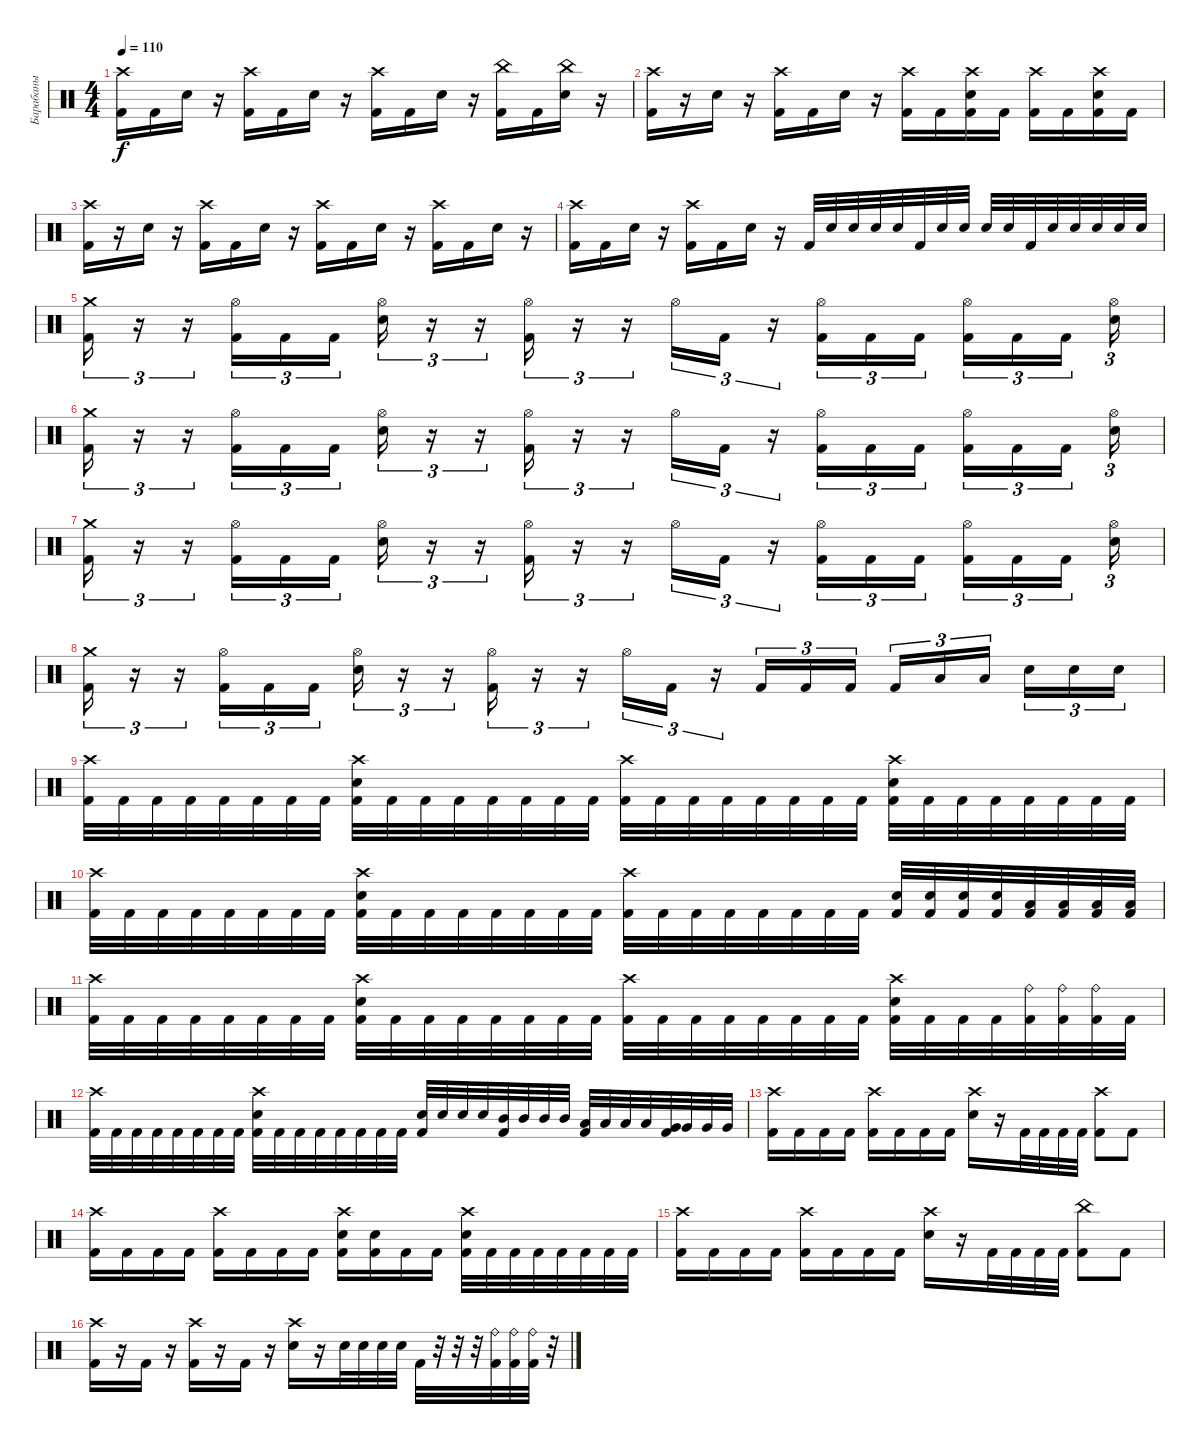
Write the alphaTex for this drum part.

\track ("Барабаны" "Барабаны") {instrument percussion}
\staff {score}
\articulation defaults
\ts (4 4)
\tempo 110
\clef neutral
\ks c
("Crash high (hit)" "Kick (hit) 2").16{dy f} "Kick (hit) 2".16 "Electric Snare (hit)".16 r.16 ("Crash high (hit)" "Kick (hit) 2").16 "Kick (hit) 2".16 "Electric Snare (hit)".16 r.16 ("Crash high (hit)" "Kick (hit) 2").16 "Kick (hit) 2".16 "Electric Snare (hit)".16 r.16 ("China (hit)" "Kick (hit) 2").16 "Kick (hit) 2".16 ("China (hit)" "Electric Snare (hit)").16 r.16 |
("Crash high (hit)" "Kick (hit) 2").16 r.16 "Electric Snare (hit)".16 r.16 ("Crash high (hit)" "Kick (hit) 2").16 "Kick (hit) 2".16 "Electric Snare (hit)".16 r.16 ("Crash high (hit)" "Kick (hit) 2").16 "Kick (hit) 2".16 ("Crash high (hit)" "Electric Snare (hit)" "Kick (hit) 2").16 "Kick (hit) 2".16 ("Crash high (hit)" "Kick (hit) 2").16 "Kick (hit) 2".16 ("Crash high (hit)" "Electric Snare (hit)" "Kick (hit) 2").16 "Kick (hit) 2".16 |
("Crash high (hit)" "Kick (hit) 2").16 r.16 "Electric Snare (hit)".16 r.16 ("Crash high (hit)" "Kick (hit) 2").16 "Kick (hit) 2".16 "Electric Snare (hit)".16 r.16 ("Crash high (hit)" "Kick (hit) 2").16 "Kick (hit) 2".16 "Electric Snare (hit)".16 r.16 ("Crash high (hit)" "Kick (hit) 2").16 "Kick (hit) 2".16 "Electric Snare (hit)".16 r.16 |
("Crash high (hit)" "Kick (hit) 2").16 "Kick (hit) 2".16 "Electric Snare (hit)".16 r.16 ("Crash high (hit)" "Kick (hit) 2").16 "Kick (hit) 2".16 "Electric Snare (hit)".16 r.16 "Kick (hit) 2".32 "Electric Snare (hit)".32 "Electric Snare (hit)".32 "Electric Snare (hit)".32 "Electric Snare (hit)".32 "Kick (hit) 2".32 "Electric Snare (hit)".32 "Electric Snare (hit)".32 "Electric Snare (hit)".32 "Electric Snare (hit)".32 "Kick (hit) 2".32 "Electric Snare (hit)".32 "Electric Snare (hit)".32 "Electric Snare (hit)".32 "Electric Snare (hit)".32 "Electric Snare (hit)".32 |
("Crash medium (hit)" "Kick (hit) 2").16{tu (3 2)} r.16{tu (3 2)} r.16{tu (3 2)} ("Hi-Hat (open)" "Kick (hit) 2").16{tu (3 2)} "Kick (hit) 2".16{tu (3 2)} "Kick (hit) 2".16{tu (3 2)} ("Hi-Hat (open)" "Electric Snare (hit)").16{tu (3 2)} r.16{tu (3 2)} r.16{tu (3 2)} ("Hi-Hat (open)" "Kick (hit) 2").16{tu (3 2)} r.16{tu (3 2)} r.16{tu (3 2)} "Hi-Hat (open)".16{tu (3 2)} "Kick (hit) 2".16{tu (3 2)} r.16{tu (3 2)} ("Hi-Hat (open)" "Kick (hit) 2").16{tu (3 2)} "Kick (hit) 2".16{tu (3 2)} "Kick (hit) 2".16{tu (3 2)} ("Hi-Hat (open)" "Kick (hit) 2").16{tu (3 2)} "Kick (hit) 2".16{tu (3 2)} "Kick (hit) 2".16{tu (3 2) beam splitsecondary} ("Hi-Hat (open)" "Electric Snare (hit)").16{tu (3 2)} |
("Crash medium (hit)" "Kick (hit) 2").16{tu (3 2)} r.16{tu (3 2)} r.16{tu (3 2)} ("Hi-Hat (open)" "Kick (hit) 2").16{tu (3 2)} "Kick (hit) 2".16{tu (3 2)} "Kick (hit) 2".16{tu (3 2)} ("Hi-Hat (open)" "Electric Snare (hit)").16{tu (3 2)} r.16{tu (3 2)} r.16{tu (3 2)} ("Hi-Hat (open)" "Kick (hit) 2").16{tu (3 2)} r.16{tu (3 2)} r.16{tu (3 2)} "Hi-Hat (open)".16{tu (3 2)} "Kick (hit) 2".16{tu (3 2)} r.16{tu (3 2)} ("Hi-Hat (open)" "Kick (hit) 2").16{tu (3 2)} "Kick (hit) 2".16{tu (3 2)} "Kick (hit) 2".16{tu (3 2)} ("Hi-Hat (open)" "Kick (hit) 2").16{tu (3 2)} "Kick (hit) 2".16{tu (3 2)} "Kick (hit) 2".16{tu (3 2) beam splitsecondary} ("Hi-Hat (open)" "Electric Snare (hit)").16{tu (3 2)} |
("Crash medium (hit)" "Kick (hit) 2").16{tu (3 2)} r.16{tu (3 2)} r.16{tu (3 2)} ("Hi-Hat (open)" "Kick (hit) 2").16{tu (3 2)} "Kick (hit) 2".16{tu (3 2)} "Kick (hit) 2".16{tu (3 2)} ("Hi-Hat (open)" "Electric Snare (hit)").16{tu (3 2)} r.16{tu (3 2)} r.16{tu (3 2)} ("Hi-Hat (open)" "Kick (hit) 2").16{tu (3 2)} r.16{tu (3 2)} r.16{tu (3 2)} "Hi-Hat (open)".16{tu (3 2)} "Kick (hit) 2".16{tu (3 2)} r.16{tu (3 2)} ("Hi-Hat (open)" "Kick (hit) 2").16{tu (3 2)} "Kick (hit) 2".16{tu (3 2)} "Kick (hit) 2".16{tu (3 2)} ("Hi-Hat (open)" "Kick (hit) 2").16{tu (3 2)} "Kick (hit) 2".16{tu (3 2)} "Kick (hit) 2".16{tu (3 2) beam splitsecondary} ("Hi-Hat (open)" "Electric Snare (hit)").16{tu (3 2)} |
("Crash medium (hit)" "Kick (hit) 2").16{tu (3 2)} r.16{tu (3 2)} r.16{tu (3 2)} ("Hi-Hat (open)" "Kick (hit) 2").16{tu (3 2)} "Kick (hit) 2".16{tu (3 2)} "Kick (hit) 2".16{tu (3 2)} ("Hi-Hat (open)" "Electric Snare (hit)").16{tu (3 2)} r.16{tu (3 2)} r.16{tu (3 2)} ("Hi-Hat (open)" "Kick (hit) 2").16{tu (3 2)} r.16{tu (3 2)} r.16{tu (3 2)} "Hi-Hat (open)".16{tu (3 2)} "Kick (hit) 2".16{tu (3 2)} r.16{tu (3 2)} "Kick (hit) 2".16{tu (3 2)} "Kick (hit) 2".16{tu (3 2)} "Kick (hit) 2".16{tu (3 2)} "Kick (hit) 2".16{tu (3 2)} "Low Tom (hit)".16{tu (3 2)} "Low Tom (hit)".16{tu (3 2) beam splitsecondary} "Electric Snare (hit)".16{tu (3 2)} "Electric Snare (hit)".16{tu (3 2)} "Electric Snare (hit)".16{tu (3 2)} |
("Crash high (hit)" "Kick (hit) 2").32 "Kick (hit) 2".32 "Kick (hit) 2".32 "Kick (hit) 2".32 "Kick (hit) 2".32 "Kick (hit) 2".32 "Kick (hit) 2".32 "Kick (hit) 2".32 ("Crash high (hit)" "Electric Snare (hit)" "Kick (hit) 2").32 "Kick (hit) 2".32 "Kick (hit) 2".32 "Kick (hit) 2".32 "Kick (hit) 2".32 "Kick (hit) 2".32 "Kick (hit) 2".32 "Kick (hit) 2".32 ("Crash high (hit)" "Kick (hit) 2").32 "Kick (hit) 2".32 "Kick (hit) 2".32 "Kick (hit) 2".32 "Kick (hit) 2".32 "Kick (hit) 2".32 "Kick (hit) 2".32 "Kick (hit) 2".32 ("Crash high (hit)" "Electric Snare (hit)" "Kick (hit) 2").32 "Kick (hit) 2".32 "Kick (hit) 2".32 "Kick (hit) 2".32 "Kick (hit) 2".32 "Kick (hit) 2".32 "Kick (hit) 2".32 "Kick (hit) 2".32 |
("Crash high (hit)" "Kick (hit) 2").32 "Kick (hit) 2".32 "Kick (hit) 2".32 "Kick (hit) 2".32 "Kick (hit) 2".32 "Kick (hit) 2".32 "Kick (hit) 2".32 "Kick (hit) 2".32 ("Crash high (hit)" "Electric Snare (hit)" "Kick (hit) 2").32 "Kick (hit) 2".32 "Kick (hit) 2".32 "Kick (hit) 2".32 "Kick (hit) 2".32 "Kick (hit) 2".32 "Kick (hit) 2".32 "Kick (hit) 2".32 ("Crash high (hit)" "Kick (hit) 2").32 "Kick (hit) 2".32 "Kick (hit) 2".32 "Kick (hit) 2".32 "Kick (hit) 2".32 "Kick (hit) 2".32 "Kick (hit) 2".32 "Kick (hit) 2".32 ("Electric Snare (hit)" "Kick (hit) 2").32 ("Electric Snare (hit)" "Kick (hit) 2").32 ("Electric Snare (hit)" "Kick (hit) 2").32 ("Electric Snare (hit)" "Kick (hit) 2").32 ("Low Tom (hit)" "Kick (hit) 2").32 ("Low Tom (hit)" "Kick (hit) 2").32 ("Low Tom (hit)" "Kick (hit) 2").32 ("Low Tom (hit)" "Kick (hit) 2").32 |
("Crash high (hit)" "Kick (hit) 2").32 "Kick (hit) 2".32 "Kick (hit) 2".32 "Kick (hit) 2".32 "Kick (hit) 2".32 "Kick (hit) 2".32 "Kick (hit) 2".32 "Kick (hit) 2".32 ("Crash high (hit)" "Electric Snare (hit)" "Kick (hit) 2").32 "Kick (hit) 2".32 "Kick (hit) 2".32 "Kick (hit) 2".32 "Kick (hit) 2".32 "Kick (hit) 2".32 "Kick (hit) 2".32 "Kick (hit) 2".32 ("Crash high (hit)" "Kick (hit) 2").32 "Kick (hit) 2".32 "Kick (hit) 2".32 "Kick (hit) 2".32 "Kick (hit) 2".32 "Kick (hit) 2".32 "Kick (hit) 2".32 "Kick (hit) 2".32 ("Crash high (hit)" "Electric Snare (hit)" "Kick (hit) 2").32 "Kick (hit) 2".32 "Kick (hit) 2".32 "Kick (hit) 2".32 ("Ride (bell)" "Kick (hit) 2").32 ("Ride (bell)" "Kick (hit) 2").32 ("Ride (bell)" "Kick (hit) 2").32 "Kick (hit) 2".32 |
("Crash high (hit)" "Kick (hit) 2").32 "Kick (hit) 2".32 "Kick (hit) 2".32 "Kick (hit) 2".32 "Kick (hit) 2".32 "Kick (hit) 2".32 "Kick (hit) 2".32 "Kick (hit) 2".32 ("Crash high (hit)" "Electric Snare (hit)" "Kick (hit) 2").32 "Kick (hit) 2".32 "Kick (hit) 2".32 "Kick (hit) 2".32 "Kick (hit) 2".32 "Kick (hit) 2".32 "Kick (hit) 2".32 "Kick (hit) 2".32 ("Electric Snare (hit)" "Kick (hit) 2").32 "Electric Snare (hit)".32 "Electric Snare (hit)".32 "Electric Snare (hit)".32 ("Mid Tom (hit)" "Kick (hit) 2").32 "Mid Tom (hit)".32 "Mid Tom (hit)".32 "Mid Tom (hit)".32 ("Low Tom (hit)" "Kick (hit) 2").32 "Low Tom (hit)".32 "Low Tom (hit)".32 "Low Tom (hit)".32 ("Very Low Tom (hit)" "Kick (hit) 2").32 "Very Low Tom (hit)".32 "Very Low Tom (hit)".32 "Very Low Tom (hit)".32 |
("Crash high (hit)" "Kick (hit) 2").16 "Kick (hit) 2".16 "Kick (hit) 2".16 "Kick (hit) 2".16 ("Crash high (hit)" "Kick (hit) 2").16 "Kick (hit) 2".16 "Kick (hit) 2".16 "Kick (hit) 2".16 ("Crash high (hit)" "Electric Snare (hit)").16 r.16 "Kick (hit) 2".32 "Kick (hit) 2".32 "Kick (hit) 2".32 "Kick (hit) 2".32 ("Crash high (hit)" "Kick (hit) 2").8 "Kick (hit) 2".8 |
("Crash high (hit)" "Kick (hit) 2").16 "Kick (hit) 2".16 "Kick (hit) 2".16 "Kick (hit) 2".16 ("Crash high (hit)" "Kick (hit) 2").16 "Kick (hit) 2".16 "Kick (hit) 2".16 "Kick (hit) 2".16 ("Crash high (hit)" "Electric Snare (hit)" "Kick (hit) 2").16 ("Electric Snare (hit)" "Kick (hit) 2").16 "Kick (hit) 2".16 "Kick (hit) 2".16 ("Crash high (hit)" "Electric Snare (hit)" "Kick (hit) 2").32 "Kick (hit) 2".32 "Kick (hit) 2".32 "Kick (hit) 2".32 "Kick (hit) 2".32 "Kick (hit) 2".32 "Kick (hit) 2".32 "Kick (hit) 2".32 |
("Crash high (hit)" "Kick (hit) 2").16 "Kick (hit) 2".16 "Kick (hit) 2".16 "Kick (hit) 2".16 ("Crash high (hit)" "Kick (hit) 2").16 "Kick (hit) 2".16 "Kick (hit) 2".16 "Kick (hit) 2".16 ("Crash high (hit)" "Electric Snare (hit)").16 r.16 "Kick (hit) 2".32 "Kick (hit) 2".32 "Kick (hit) 2".32 "Kick (hit) 2".32 ("China (hit)" "Kick (hit) 2").8 "Kick (hit) 2".8 |
("Crash high (hit)" "Kick (hit) 2").16 r.16 "Kick (hit) 2".16 r.16 ("Crash high (hit)" "Kick (hit) 2").16 r.16 "Kick (hit) 2".16 r.16 ("Crash high (hit)" "Electric Snare (hit)").16 r.16 "Electric Snare (hit)".32 "Electric Snare (hit)".32 "Electric Snare (hit)".32 "Electric Snare (hit)".32 "Kick (hit) 2".32 r.32 r.32 r.32 ("Ride (bell)" "Kick (hit) 2").32 ("Ride (bell)" "Kick (hit) 2").32 ("Ride (bell)" "Kick (hit) 2").32 r.32
